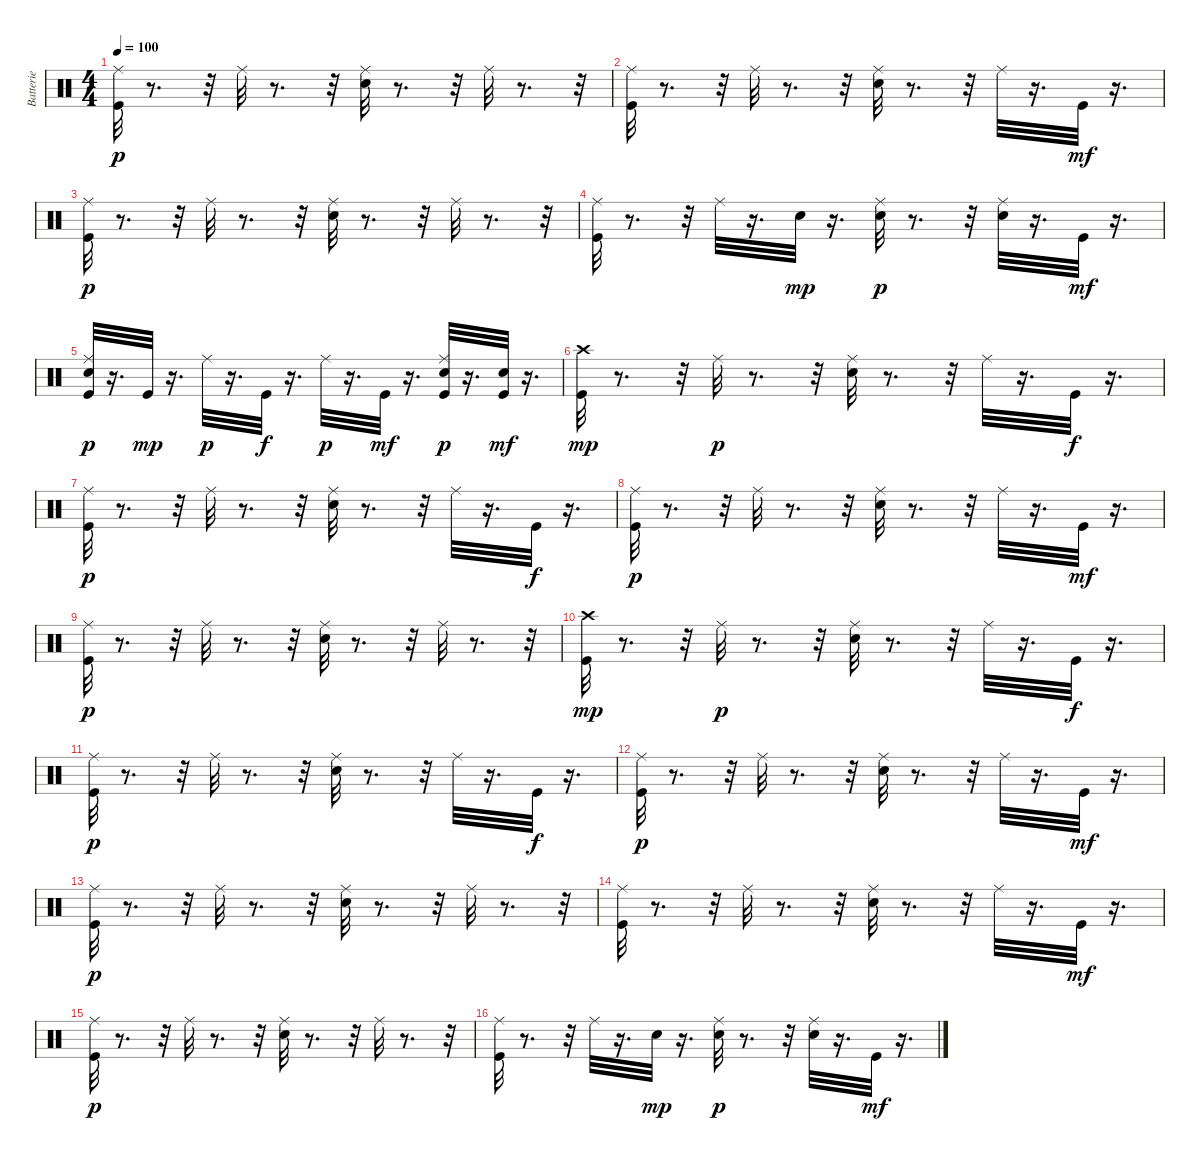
\track ("Batterie" "Batterie") {instrument percussion}
\staff {score}
\articulation defaults
\ts (4 4)
\tempo 100
\clef neutral
\ks c
("Kick (hit)" "Ride (middle)").32{dy p} r.8{d} r.32 "Ride (middle)".32 r.8{d} r.32 ("Snare (hit) 2" "Ride (middle)").32 r.8{d} r.32 "Ride (middle)".32 r.8{d} r.32 |
("Kick (hit)" "Ride (middle)").32 r.8{d} r.32 "Ride (middle)".32 r.8{d} r.32 ("Snare (hit) 2" "Ride (middle)").32 r.8{d} r.32 "Ride (middle)".32 r.16{d} "Kick (hit)".32{dy mf} r.16{d} |
("Kick (hit)" "Ride (middle)").32{dy p} r.8{d} r.32 "Ride (middle)".32 r.8{d} r.32 ("Snare (hit) 2" "Ride (middle)").32 r.8{d} r.32 "Ride (middle)".32 r.8{d} r.32 |
("Kick (hit)" "Ride (middle)").32 r.8{d} r.32 "Ride (middle)".32 r.16{d} "Snare (hit) 2".32{dy mp} r.16{d} ("Snare (hit) 2" "Ride (middle)").32{dy p} r.8{d} r.32 ("Snare (hit) 2" "Ride (middle)").32 r.16{d} "Kick (hit)".32{dy mf} r.16{d} |
("Kick (hit)" "Snare (hit) 2" "Ride (middle)").32{dy p} r.16{d} "Kick (hit)".32{dy mp} r.16{d} "Ride (middle)".32{dy p} r.16{d} "Kick (hit)".32{dy f} r.16{d} "Ride (middle)".32{dy p} r.16{d} "Kick (hit)".32{dy mf} r.16{d} ("Kick (hit)" "Snare (hit) 2" "Ride (middle)").32{dy p} r.16{d} ("Kick (hit)" "Snare (hit) 2").32{dy mf} r.16{d} |
("Kick (hit)" "Crash high (hit)").32{dy mp} r.8{d} r.32 "Ride (middle)".32{dy p} r.8{d} r.32 ("Snare (hit) 2" "Ride (middle)").32 r.8{d} r.32 "Ride (middle)".32 r.16{d} "Kick (hit)".32{dy f} r.16{d} |
("Kick (hit)" "Ride (middle)").32{dy p} r.8{d} r.32 "Ride (middle)".32 r.8{d} r.32 ("Snare (hit) 2" "Ride (middle)").32 r.8{d} r.32 "Ride (middle)".32 r.16{d} "Kick (hit)".32{dy f} r.16{d} |
("Kick (hit)" "Ride (middle)").32{dy p} r.8{d} r.32 "Ride (middle)".32 r.8{d} r.32 ("Snare (hit) 2" "Ride (middle)").32 r.8{d} r.32 "Ride (middle)".32 r.16{d} "Kick (hit)".32{dy mf} r.16{d} |
("Kick (hit)" "Ride (middle)").32{dy p} r.8{d} r.32 "Ride (middle)".32 r.8{d} r.32 ("Snare (hit) 2" "Ride (middle)").32 r.8{d} r.32 "Ride (middle)".32 r.8{d} r.32 |
("Kick (hit)" "Crash high (hit)").32{dy mp} r.8{d} r.32 "Ride (middle)".32{dy p} r.8{d} r.32 ("Snare (hit) 2" "Ride (middle)").32 r.8{d} r.32 "Ride (middle)".32 r.16{d} "Kick (hit)".32{dy f} r.16{d} |
("Kick (hit)" "Ride (middle)").32{dy p} r.8{d} r.32 "Ride (middle)".32 r.8{d} r.32 ("Snare (hit) 2" "Ride (middle)").32 r.8{d} r.32 "Ride (middle)".32 r.16{d} "Kick (hit)".32{dy f} r.16{d} |
("Kick (hit)" "Ride (middle)").32{dy p} r.8{d} r.32 "Ride (middle)".32 r.8{d} r.32 ("Snare (hit) 2" "Ride (middle)").32 r.8{d} r.32 "Ride (middle)".32 r.16{d} "Kick (hit)".32{dy mf} r.16{d} |
("Kick (hit)" "Ride (middle)").32{dy p} r.8{d} r.32 "Ride (middle)".32 r.8{d} r.32 ("Snare (hit) 2" "Ride (middle)").32 r.8{d} r.32 "Ride (middle)".32 r.8{d} r.32 |
("Kick (hit)" "Ride (middle)").32 r.8{d} r.32 "Ride (middle)".32 r.8{d} r.32 ("Snare (hit) 2" "Ride (middle)").32 r.8{d} r.32 "Ride (middle)".32 r.16{d} "Kick (hit)".32{dy mf} r.16{d} |
("Kick (hit)" "Ride (middle)").32{dy p} r.8{d} r.32 "Ride (middle)".32 r.8{d} r.32 ("Snare (hit) 2" "Ride (middle)").32 r.8{d} r.32 "Ride (middle)".32 r.8{d} r.32 |
("Kick (hit)" "Ride (middle)").32 r.8{d} r.32 "Ride (middle)".32 r.16{d} "Snare (hit) 2".32{dy mp} r.16{d} ("Snare (hit) 2" "Ride (middle)").32{dy p} r.8{d} r.32 ("Snare (hit) 2" "Ride (middle)").32 r.16{d} "Kick (hit)".32{dy mf} r.16{d}
